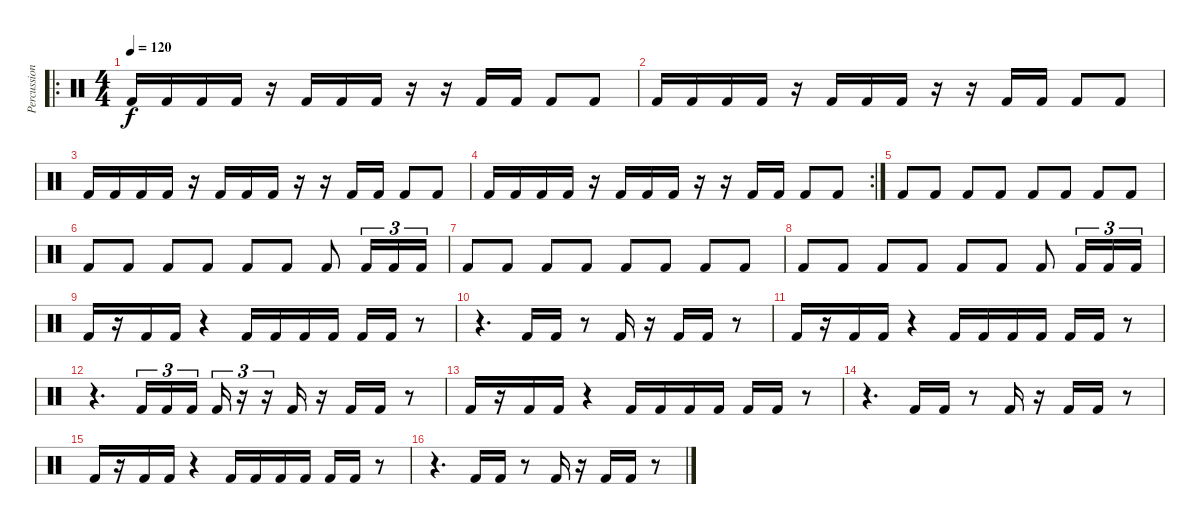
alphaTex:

\track ("Percussion" "Percussion") {instrument percussion}
\staff {score}
\articulation defaults
\ro
\ts (4 4)
\tempo 120
\clef neutral
\ks c "Kick (hit) 2".16{dy f} "Kick (hit) 2".16 "Kick (hit) 2".16 "Kick (hit) 2".16
r.16 "Kick (hit) 2".16 "Kick (hit) 2".16 "Kick (hit) 2".16 r.16 r.16 "Kick (hit) 2".16 "Kick (hit) 2".16 "Kick (hit) 2".8 "Kick (hit) 2".8 |
"Kick (hit) 2".16 "Kick (hit) 2".16 "Kick (hit) 2".16 "Kick (hit) 2".16 r.16 "Kick (hit) 2".16 "Kick (hit) 2".16 "Kick (hit) 2".16 r.16 r.16 "Kick (hit) 2".16 "Kick (hit) 2".16 "Kick (hit) 2".8 "Kick (hit) 2".8 |
"Kick (hit) 2".16 "Kick (hit) 2".16 "Kick (hit) 2".16 "Kick (hit) 2".16 r.16 "Kick (hit) 2".16 "Kick (hit) 2".16 "Kick (hit) 2".16 r.16 r.16 "Kick (hit) 2".16 "Kick (hit) 2".16 "Kick (hit) 2".8 "Kick (hit) 2".8 |
\rc 2 "Kick (hit) 2".16 "Kick (hit) 2".16 "Kick (hit) 2".16 "Kick (hit) 2".16
r.16 "Kick (hit) 2".16 "Kick (hit) 2".16 "Kick (hit) 2".16 r.16 r.16 "Kick (hit) 2".16 "Kick (hit) 2".16 "Kick (hit) 2".8 "Kick (hit) 2".8 |
"Kick (hit) 2".8 "Kick (hit) 2".8 "Kick (hit) 2".8 "Kick (hit) 2".8 "Kick (hit) 2".8 "Kick (hit) 2".8 "Kick (hit) 2".8 "Kick (hit) 2".8 |
"Kick (hit) 2".8 "Kick (hit) 2".8 "Kick (hit) 2".8 "Kick (hit) 2".8 "Kick (hit) 2".8 "Kick (hit) 2".8 "Kick (hit) 2".8 "Kick (hit) 2".16{tu (3 2)} "Kick (hit) 2".16{tu (3 2)} "Kick (hit) 2".16{tu (3 2)} |
"Kick (hit) 2".8 "Kick (hit) 2".8 "Kick (hit) 2".8 "Kick (hit) 2".8 "Kick (hit) 2".8 "Kick (hit) 2".8 "Kick (hit) 2".8 "Kick (hit) 2".8 |
"Kick (hit) 2".8 "Kick (hit) 2".8 "Kick (hit) 2".8 "Kick (hit) 2".8 "Kick (hit) 2".8 "Kick (hit) 2".8 "Kick (hit) 2".8 "Kick (hit) 2".16{tu (3 2)} "Kick (hit) 2".16{tu (3 2)} "Kick (hit) 2".16{tu (3 2)} |
"Kick (hit) 2".16 r.16 "Kick (hit) 2".16 "Kick (hit) 2".16 r.4 "Kick (hit) 2".16 "Kick (hit) 2".16 "Kick (hit) 2".16 "Kick (hit) 2".16 "Kick (hit) 2".16 "Kick (hit) 2".16 r.8 |
r.4{d} "Kick (hit) 2".16 "Kick (hit) 2".16 r.8 "Kick (hit) 2".16 r.16 "Kick (hit) 2".16 "Kick (hit) 2".16 r.8 |
"Kick (hit) 2".16 r.16 "Kick (hit) 2".16 "Kick (hit) 2".16 r.4 "Kick (hit) 2".16 "Kick (hit) 2".16 "Kick (hit) 2".16 "Kick (hit) 2".16 "Kick (hit) 2".16 "Kick (hit) 2".16 r.8 |
r.4{d} "Kick (hit) 2".16{tu (3 2)} "Kick (hit) 2".16{tu (3 2)} "Kick (hit) 2".16{tu (3 2)} "Kick (hit) 2".16{tu (3 2)} r.16{tu (3 2)} r.16{tu (3 2)} "Kick (hit) 2".16 r.16 "Kick (hit) 2".16 "Kick (hit) 2".16 r.8 |
"Kick (hit) 2".16 r.16 "Kick (hit) 2".16 "Kick (hit) 2".16 r.4 "Kick (hit) 2".16 "Kick (hit) 2".16 "Kick (hit) 2".16 "Kick (hit) 2".16 "Kick (hit) 2".16 "Kick (hit) 2".16 r.8 |
r.4{d} "Kick (hit) 2".16 "Kick (hit) 2".16 r.8 "Kick (hit) 2".16 r.16 "Kick (hit) 2".16 "Kick (hit) 2".16 r.8 |
"Kick (hit) 2".16 r.16 "Kick (hit) 2".16 "Kick (hit) 2".16 r.4 "Kick (hit) 2".16 "Kick (hit) 2".16 "Kick (hit) 2".16 "Kick (hit) 2".16 "Kick (hit) 2".16 "Kick (hit) 2".16 r.8 |
r.4{d} "Kick (hit) 2".16 "Kick (hit) 2".16 r.8 "Kick (hit) 2".16 r.16 "Kick (hit) 2".16 "Kick (hit) 2".16 r.8
